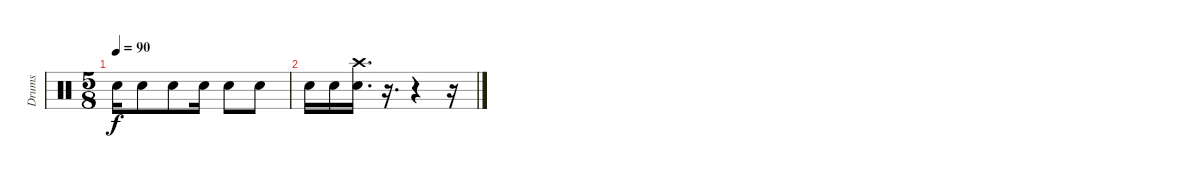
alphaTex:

\track ("Drums" "Drums") {instrument percussion}
\staff {score}
\articulation defaults
\ts (5 8)
\tempo 90
\clef neutral
\ks c "Electric Snare (hit)".16{dy f} "Electric Snare (hit)".8 "Electric Snare (hit)".8 "Electric Snare (hit)".16 "Electric Snare (hit)".8 "Electric Snare (hit)".8
|
"Electric Snare (hit)".16 "Electric Snare (hit)".16 ("Electric Snare (hit)" "Crash high (hit)").16{d} r.16{d} r.4 r.16
